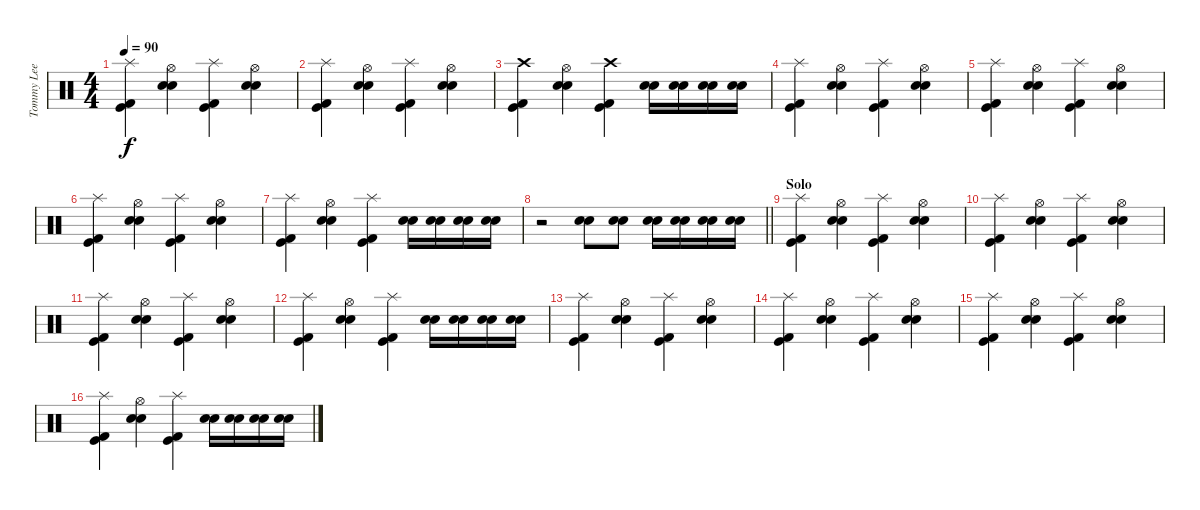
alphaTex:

\track ("Tommy Lee" "Tommy Lee") {instrument percussion}
\staff {score}
\articulation defaults
\ts (4 4)
\tempo 90
\clef neutral
\ks c
("Splash (hit)" "Kick (hit) 2" "Kick (hit)").4{dy f} ("Hi-Hat (open)" "Electric Snare (hit)" "Snare (hit) 2").4 ("Splash (hit)" "Kick (hit) 2" "Kick (hit)").4 ("Hi-Hat (open)" "Electric Snare (hit)" "Snare (hit) 2").4 |
("Splash (hit)" "Kick (hit) 2" "Kick (hit)").4 ("Hi-Hat (open)" "Electric Snare (hit)" "Snare (hit) 2").4 ("Splash (hit)" "Kick (hit) 2" "Kick (hit)").4 ("Hi-Hat (open)" "Electric Snare (hit)" "Snare (hit) 2").4 |
("Crash high (hit)" "Kick (hit) 2" "Kick (hit)").4 ("Hi-Hat (open)" "Electric Snare (hit)" "Snare (hit) 2").4 ("Crash high (hit)" "Kick (hit) 2" "Kick (hit)").4 ("Electric Snare (hit)" "Snare (hit) 2").16 ("Electric Snare (hit)" "Snare (hit) 2").16 ("Electric Snare (hit)" "Snare (hit) 2").16 ("Electric Snare (hit)" "Snare (hit) 2").16 |
("Splash (hit)" "Kick (hit) 2" "Kick (hit)").4 ("Hi-Hat (open)" "Electric Snare (hit)" "Snare (hit) 2").4 ("Splash (hit)" "Kick (hit) 2" "Kick (hit)").4 ("Hi-Hat (open)" "Electric Snare (hit)" "Snare (hit) 2").4 |
("Splash (hit)" "Kick (hit) 2" "Kick (hit)").4 ("Hi-Hat (open)" "Electric Snare (hit)" "Snare (hit) 2").4 ("Splash (hit)" "Kick (hit) 2" "Kick (hit)").4 ("Hi-Hat (open)" "Electric Snare (hit)" "Snare (hit) 2").4 |
("Splash (hit)" "Kick (hit) 2" "Kick (hit)").4 ("Hi-Hat (open)" "Electric Snare (hit)" "Snare (hit) 2").4 ("Splash (hit)" "Kick (hit) 2" "Kick (hit)").4 ("Hi-Hat (open)" "Electric Snare (hit)" "Snare (hit) 2").4 |
("Splash (hit)" "Kick (hit) 2" "Kick (hit)").4 ("Hi-Hat (open)" "Electric Snare (hit)" "Snare (hit) 2").4 ("Splash (hit)" "Kick (hit) 2" "Kick (hit)").4 ("Electric Snare (hit)" "Snare (hit) 2").16 ("Electric Snare (hit)" "Snare (hit) 2").16 ("Electric Snare (hit)" "Snare (hit) 2").16 ("Electric Snare (hit)" "Snare (hit) 2").16 |
\barLineRight lightlight
r.2 ("Electric Snare (hit)" "Snare (hit) 2").8 ("Electric Snare (hit)" "Snare (hit) 2").8 ("Electric Snare (hit)" "Snare (hit) 2").16 ("Electric Snare (hit)" "Snare (hit) 2").16 ("Electric Snare (hit)" "Snare (hit) 2").16 ("Electric Snare (hit)" "Snare (hit) 2").16 |
\section ("" "Solo")
("Splash (hit)" "Kick (hit) 2" "Kick (hit)").4 ("Hi-Hat (open)" "Electric Snare (hit)" "Snare (hit) 2").4 ("Splash (hit)" "Kick (hit) 2" "Kick (hit)").4 ("Hi-Hat (open)" "Electric Snare (hit)" "Snare (hit) 2").4 |
("Splash (hit)" "Kick (hit) 2" "Kick (hit)").4 ("Hi-Hat (open)" "Electric Snare (hit)" "Snare (hit) 2").4 ("Splash (hit)" "Kick (hit) 2" "Kick (hit)").4 ("Hi-Hat (open)" "Electric Snare (hit)" "Snare (hit) 2").4 |
("Splash (hit)" "Kick (hit) 2" "Kick (hit)").4 ("Hi-Hat (open)" "Electric Snare (hit)" "Snare (hit) 2").4 ("Splash (hit)" "Kick (hit) 2" "Kick (hit)").4 ("Hi-Hat (open)" "Electric Snare (hit)" "Snare (hit) 2").4 |
("Splash (hit)" "Kick (hit) 2" "Kick (hit)").4 ("Hi-Hat (open)" "Electric Snare (hit)" "Snare (hit) 2").4 ("Splash (hit)" "Kick (hit) 2" "Kick (hit)").4 ("Electric Snare (hit)" "Snare (hit) 2").16 ("Electric Snare (hit)" "Snare (hit) 2").16 ("Electric Snare (hit)" "Snare (hit) 2").16 ("Electric Snare (hit)" "Snare (hit) 2").16 |
("Splash (hit)" "Kick (hit) 2" "Kick (hit)").4 ("Hi-Hat (open)" "Electric Snare (hit)" "Snare (hit) 2").4 ("Splash (hit)" "Kick (hit) 2" "Kick (hit)").4 ("Hi-Hat (open)" "Electric Snare (hit)" "Snare (hit) 2").4 |
("Splash (hit)" "Kick (hit) 2" "Kick (hit)").4 ("Hi-Hat (open)" "Electric Snare (hit)" "Snare (hit) 2").4 ("Splash (hit)" "Kick (hit) 2" "Kick (hit)").4 ("Hi-Hat (open)" "Electric Snare (hit)" "Snare (hit) 2").4 |
("Splash (hit)" "Kick (hit) 2" "Kick (hit)").4 ("Hi-Hat (open)" "Electric Snare (hit)" "Snare (hit) 2").4 ("Splash (hit)" "Kick (hit) 2" "Kick (hit)").4 ("Hi-Hat (open)" "Electric Snare (hit)" "Snare (hit) 2").4 |
("Splash (hit)" "Kick (hit) 2" "Kick (hit)").4 ("Hi-Hat (open)" "Electric Snare (hit)" "Snare (hit) 2").4 ("Splash (hit)" "Kick (hit) 2" "Kick (hit)").4 ("Electric Snare (hit)" "Snare (hit) 2").16 ("Electric Snare (hit)" "Snare (hit) 2").16 ("Electric Snare (hit)" "Snare (hit) 2").16 ("Electric Snare (hit)" "Snare (hit) 2").16
